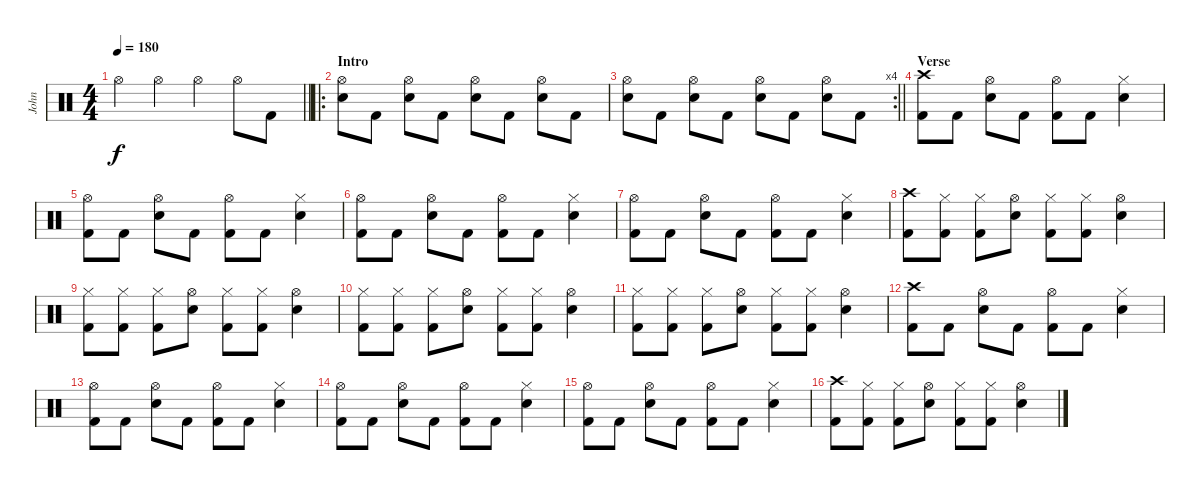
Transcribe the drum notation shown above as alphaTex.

\track ("John" "John") {instrument percussion}
\staff {score}
\articulation defaults
\ts (4 4)
\tempo 180
\clef neutral
\barLineRight lightlight
\ks c "Hi-Hat (open)".4{dy f} "Hi-Hat (open)".4 "Hi-Hat (open)".4 "Hi-Hat (open)".8 "Kick (hit) 2".8
|
\ro
\section ("" "Intro")
("Hi-Hat (open)" "Snare (hit) 2").8 "Kick (hit) 2".8 ("Hi-Hat (open)" "Snare (hit) 2").8 "Kick (hit) 2".8 ("Hi-Hat (open)" "Snare (hit) 2").8 "Kick (hit) 2".8 ("Hi-Hat (open)" "Snare (hit) 2").8 "Kick (hit) 2".8 |
\rc 4
\barLineRight lightlight
("Hi-Hat (open)" "Snare (hit) 2").8 "Kick (hit) 2".8 ("Hi-Hat (open)" "Snare (hit) 2").8 "Kick (hit) 2".8 ("Hi-Hat (open)" "Snare (hit) 2").8 "Kick (hit) 2".8 ("Hi-Hat (open)" "Snare (hit) 2").8 "Kick (hit) 2".8 |
\section ("" "Verse ")
("Crash high (hit)" "Kick (hit) 2").8 "Kick (hit) 2".8 ("Hi-Hat (open)" "Snare (hit) 2").8 "Kick (hit) 2".8 ("Hi-Hat (open)" "Kick (hit) 2").8 "Kick (hit) 2".8 ("Hi-Hat (closed)" "Snare (hit) 2").4 |
("Hi-Hat (open)" "Kick (hit) 2").8 "Kick (hit) 2".8 ("Hi-Hat (open)" "Snare (hit) 2").8 "Kick (hit) 2".8 ("Hi-Hat (open)" "Kick (hit) 2").8 "Kick (hit) 2".8 ("Hi-Hat (closed)" "Snare (hit) 2").4 |
("Hi-Hat (open)" "Kick (hit) 2").8 "Kick (hit) 2".8 ("Hi-Hat (open)" "Snare (hit) 2").8 "Kick (hit) 2".8 ("Hi-Hat (open)" "Kick (hit) 2").8 "Kick (hit) 2".8 ("Hi-Hat (closed)" "Snare (hit) 2").4 |
("Hi-Hat (open)" "Kick (hit) 2").8 "Kick (hit) 2".8 ("Hi-Hat (open)" "Snare (hit) 2").8 "Kick (hit) 2".8 ("Hi-Hat (open)" "Kick (hit) 2").8 "Kick (hit) 2".8 ("Hi-Hat (closed)" "Snare (hit) 2").4 |
("Crash high (hit)" "Kick (hit) 2").8 ("Hi-Hat (closed)" "Kick (hit) 2").8 ("Hi-Hat (closed)" "Kick (hit) 2").8 ("Hi-Hat (open)" "Snare (hit) 2").8 ("Hi-Hat (closed)" "Kick (hit) 2").8 ("Hi-Hat (closed)" "Kick (hit) 2").8 ("Hi-Hat (open)" "Snare (hit) 2").4 |
("Hi-Hat (closed)" "Kick (hit) 2").8 ("Hi-Hat (closed)" "Kick (hit) 2").8 ("Hi-Hat (closed)" "Kick (hit) 2").8 ("Hi-Hat (open)" "Snare (hit) 2").8 ("Hi-Hat (closed)" "Kick (hit) 2").8 ("Hi-Hat (closed)" "Kick (hit) 2").8 ("Hi-Hat (open)" "Snare (hit) 2").4 |
("Hi-Hat (closed)" "Kick (hit) 2").8 ("Hi-Hat (closed)" "Kick (hit) 2").8 ("Hi-Hat (closed)" "Kick (hit) 2").8 ("Hi-Hat (open)" "Snare (hit) 2").8 ("Hi-Hat (closed)" "Kick (hit) 2").8 ("Hi-Hat (closed)" "Kick (hit) 2").8 ("Hi-Hat (open)" "Snare (hit) 2").4 |
("Hi-Hat (closed)" "Kick (hit) 2").8 ("Hi-Hat (closed)" "Kick (hit) 2").8 ("Hi-Hat (closed)" "Kick (hit) 2").8 ("Hi-Hat (open)" "Snare (hit) 2").8 ("Hi-Hat (closed)" "Kick (hit) 2").8 ("Hi-Hat (closed)" "Kick (hit) 2").8 ("Hi-Hat (open)" "Snare (hit) 2").4 |
("Crash high (hit)" "Kick (hit) 2").8 "Kick (hit) 2".8 ("Hi-Hat (open)" "Snare (hit) 2").8 "Kick (hit) 2".8 ("Hi-Hat (open)" "Kick (hit) 2").8 "Kick (hit) 2".8 ("Hi-Hat (closed)" "Snare (hit) 2").4 |
("Hi-Hat (open)" "Kick (hit) 2").8 "Kick (hit) 2".8 ("Hi-Hat (open)" "Snare (hit) 2").8 "Kick (hit) 2".8 ("Hi-Hat (open)" "Kick (hit) 2").8 "Kick (hit) 2".8 ("Hi-Hat (closed)" "Snare (hit) 2").4 |
("Hi-Hat (open)" "Kick (hit) 2").8 "Kick (hit) 2".8 ("Hi-Hat (open)" "Snare (hit) 2").8 "Kick (hit) 2".8 ("Hi-Hat (open)" "Kick (hit) 2").8 "Kick (hit) 2".8 ("Hi-Hat (closed)" "Snare (hit) 2").4 |
("Hi-Hat (open)" "Kick (hit) 2").8 "Kick (hit) 2".8 ("Hi-Hat (open)" "Snare (hit) 2").8 "Kick (hit) 2".8 ("Hi-Hat (open)" "Kick (hit) 2").8 "Kick (hit) 2".8 ("Hi-Hat (closed)" "Snare (hit) 2").4 |
("Crash high (hit)" "Kick (hit) 2").8 ("Hi-Hat (closed)" "Kick (hit) 2").8 ("Hi-Hat (closed)" "Kick (hit) 2").8 ("Hi-Hat (open)" "Snare (hit) 2").8 ("Hi-Hat (closed)" "Kick (hit) 2").8 ("Hi-Hat (closed)" "Kick (hit) 2").8 ("Hi-Hat (open)" "Snare (hit) 2").4
